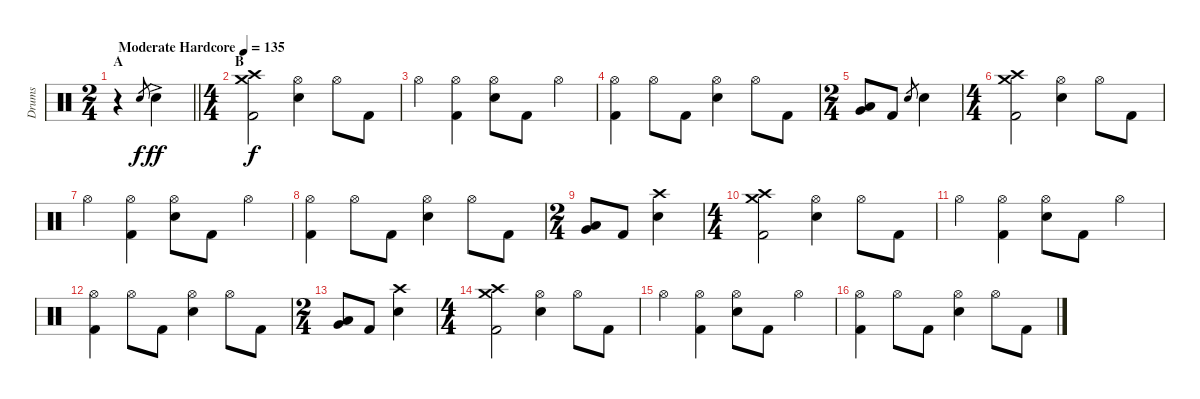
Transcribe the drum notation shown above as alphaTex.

\track ("Drums" "Drums") {instrument percussion}
\staff {score}
\articulation defaults
\ts (2 4)
\section ("" "A")
\tempo (135 "Moderate Hardcore")
\clef neutral
\barLineRight lightlight
\ks c
r.4{dy f} "Electric Snare (hit)".8{gr} "Electric Snare (hit)"{ac}.4{dy ff} |
\ts (4 4)
\section ("" "B")
("Crash medium (hit)" "Crash high (hit)" "Kick (hit) 2").2{dy f} ("Hi-Hat (open)" "Electric Snare (hit)").4 "Hi-Hat (open)".8 "Kick (hit) 2".8 |
"Hi-Hat (open)".4 ("Hi-Hat (open)" "Kick (hit) 2").4 ("Hi-Hat (open)" "Electric Snare (hit)").8 "Kick (hit) 2".8 "Hi-Hat (open)".4 |
("Hi-Hat (open)" "Kick (hit) 2").4 "Hi-Hat (open)".8 "Kick (hit) 2".8 ("Hi-Hat (open)" "Electric Snare (hit)").4 "Hi-Hat (open)".8 "Kick (hit) 2".8 |
\ts (2 4)
("Very Low Tom (hit)" "Low Floor Tom (hit)").8 "Kick (hit) 2".8 "Electric Snare (hit)".8{gr} "Electric Snare (hit)".4 |
\ts (4 4)
("Crash medium (hit)" "Crash high (hit)" "Kick (hit) 2").2 ("Hi-Hat (open)" "Electric Snare (hit)").4 "Hi-Hat (open)".8 "Kick (hit) 2".8 |
"Hi-Hat (open)".4 ("Hi-Hat (open)" "Kick (hit) 2").4 ("Hi-Hat (open)" "Electric Snare (hit)").8 "Kick (hit) 2".8 "Hi-Hat (open)".4 |
("Hi-Hat (open)" "Kick (hit) 2").4 "Hi-Hat (open)".8 "Kick (hit) 2".8 ("Hi-Hat (open)" "Electric Snare (hit)").4 "Hi-Hat (open)".8 "Kick (hit) 2".8 |
\ts (2 4)
("Very Low Tom (hit)" "Low Floor Tom (hit)").8 "Kick (hit) 2".8 ("Crash high (hit)" "Electric Snare (hit)").4 |
\ts (4 4)
("Crash medium (hit)" "Crash high (hit)" "Kick (hit) 2").2 ("Hi-Hat (open)" "Electric Snare (hit)").4 "Hi-Hat (open)".8 "Kick (hit) 2".8 |
"Hi-Hat (open)".4 ("Hi-Hat (open)" "Kick (hit) 2").4 ("Hi-Hat (open)" "Electric Snare (hit)").8 "Kick (hit) 2".8 "Hi-Hat (open)".4 |
("Hi-Hat (open)" "Kick (hit) 2").4 "Hi-Hat (open)".8 "Kick (hit) 2".8 ("Hi-Hat (open)" "Electric Snare (hit)").4 "Hi-Hat (open)".8 "Kick (hit) 2".8 |
\ts (2 4)
("Very Low Tom (hit)" "Low Floor Tom (hit)").8 "Kick (hit) 2".8 ("Crash high (hit)" "Electric Snare (hit)").4 |
\ts (4 4)
("Crash medium (hit)" "Crash high (hit)" "Kick (hit) 2").2 ("Hi-Hat (open)" "Electric Snare (hit)").4 "Hi-Hat (open)".8 "Kick (hit) 2".8 |
"Hi-Hat (open)".4 ("Hi-Hat (open)" "Kick (hit) 2").4 ("Hi-Hat (open)" "Electric Snare (hit)").8 "Kick (hit) 2".8 "Hi-Hat (open)".4 |
("Hi-Hat (open)" "Kick (hit) 2").4 "Hi-Hat (open)".8 "Kick (hit) 2".8 ("Hi-Hat (open)" "Electric Snare (hit)").4 "Hi-Hat (open)".8 "Kick (hit) 2".8
